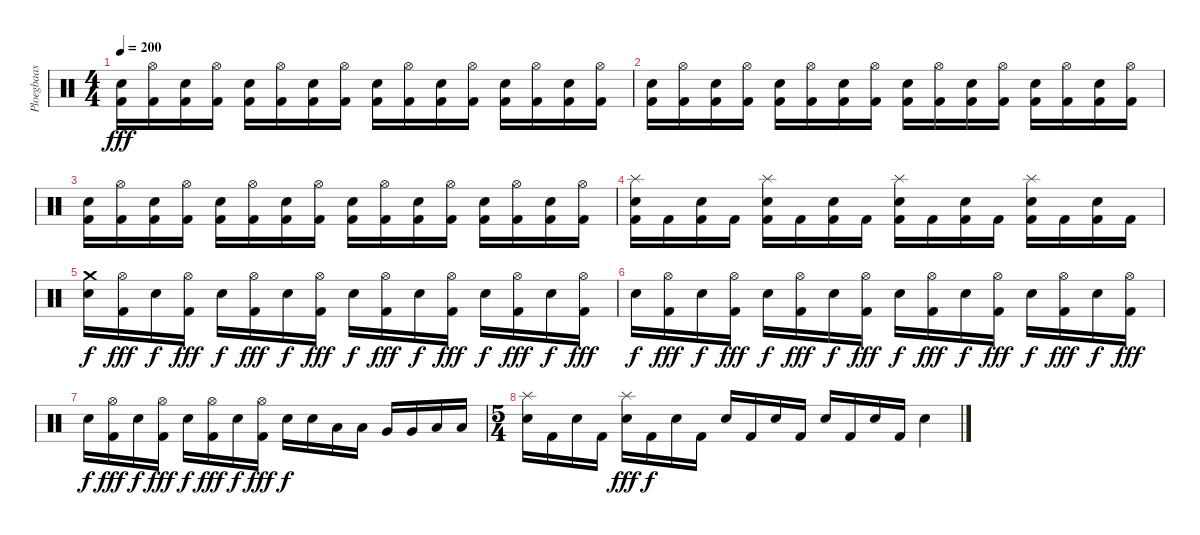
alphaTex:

\track ("Ploegbaas" "Ploegbaas") {instrument percussion}
\staff {score}
\articulation defaults
\ts (4 4)
\tempo 200
\clef neutral
\ks c
("Electric Snare (hit)" "Kick (hit) 2").16{dy fff} ("Hi-Hat (open)" "Kick (hit) 2").16 ("Electric Snare (hit)" "Kick (hit) 2").16 ("Hi-Hat (open)" "Kick (hit) 2").16 ("Electric Snare (hit)" "Kick (hit) 2").16 ("Hi-Hat (open)" "Kick (hit) 2").16 ("Electric Snare (hit)" "Kick (hit) 2").16 ("Hi-Hat (open)" "Kick (hit) 2").16 ("Electric Snare (hit)" "Kick (hit) 2").16 ("Hi-Hat (open)" "Kick (hit) 2").16 ("Electric Snare (hit)" "Kick (hit) 2").16 ("Hi-Hat (open)" "Kick (hit) 2").16 ("Electric Snare (hit)" "Kick (hit) 2").16 ("Hi-Hat (open)" "Kick (hit) 2").16 ("Electric Snare (hit)" "Kick (hit) 2").16 ("Hi-Hat (open)" "Kick (hit) 2").16 |
("Electric Snare (hit)" "Kick (hit) 2").16 ("Hi-Hat (open)" "Kick (hit) 2").16 ("Electric Snare (hit)" "Kick (hit) 2").16 ("Hi-Hat (open)" "Kick (hit) 2").16 ("Electric Snare (hit)" "Kick (hit) 2").16 ("Hi-Hat (open)" "Kick (hit) 2").16 ("Electric Snare (hit)" "Kick (hit) 2").16 ("Hi-Hat (open)" "Kick (hit) 2").16 ("Electric Snare (hit)" "Kick (hit) 2").16 ("Hi-Hat (open)" "Kick (hit) 2").16 ("Electric Snare (hit)" "Kick (hit) 2").16 ("Hi-Hat (open)" "Kick (hit) 2").16 ("Electric Snare (hit)" "Kick (hit) 2").16 ("Hi-Hat (open)" "Kick (hit) 2").16 ("Electric Snare (hit)" "Kick (hit) 2").16 ("Hi-Hat (open)" "Kick (hit) 2").16 |
("Electric Snare (hit)" "Kick (hit) 2").16 ("Hi-Hat (open)" "Kick (hit) 2").16 ("Electric Snare (hit)" "Kick (hit) 2").16 ("Hi-Hat (open)" "Kick (hit) 2").16 ("Electric Snare (hit)" "Kick (hit) 2").16 ("Hi-Hat (open)" "Kick (hit) 2").16 ("Electric Snare (hit)" "Kick (hit) 2").16 ("Hi-Hat (open)" "Kick (hit) 2").16 ("Electric Snare (hit)" "Kick (hit) 2").16 ("Hi-Hat (open)" "Kick (hit) 2").16 ("Electric Snare (hit)" "Kick (hit) 2").16 ("Hi-Hat (open)" "Kick (hit) 2").16 ("Electric Snare (hit)" "Kick (hit) 2").16 ("Hi-Hat (open)" "Kick (hit) 2").16 ("Electric Snare (hit)" "Kick (hit) 2").16 ("Hi-Hat (open)" "Kick (hit) 2").16 |
("Splash (hit)" "Electric Snare (hit)" "Kick (hit) 2").16 "Kick (hit) 2".16 ("Electric Snare (hit)" "Kick (hit) 2").16 "Kick (hit) 2".16 ("Splash (hit)" "Electric Snare (hit)" "Kick (hit) 2").16 "Kick (hit) 2".16 ("Electric Snare (hit)" "Kick (hit) 2").16 "Kick (hit) 2".16 ("Splash (hit)" "Electric Snare (hit)" "Kick (hit) 2").16 "Kick (hit) 2".16 ("Electric Snare (hit)" "Kick (hit) 2").16 "Kick (hit) 2".16 ("Splash (hit)" "Electric Snare (hit)" "Kick (hit) 2").16 "Kick (hit) 2".16 ("Electric Snare (hit)" "Kick (hit) 2").16 "Kick (hit) 2".16 |
("Crash medium (hit)" "Electric Snare (hit)").16{dy f} ("Hi-Hat (open)" "Kick (hit) 2").16{dy fff} "Electric Snare (hit)".16{dy f} ("Hi-Hat (open)" "Kick (hit) 2").16{dy fff} "Electric Snare (hit)".16{dy f} ("Hi-Hat (open)" "Kick (hit) 2").16{dy fff} "Electric Snare (hit)".16{dy f} ("Hi-Hat (open)" "Kick (hit) 2").16{dy fff} "Electric Snare (hit)".16{dy f} ("Hi-Hat (open)" "Kick (hit) 2").16{dy fff} "Electric Snare (hit)".16{dy f} ("Hi-Hat (open)" "Kick (hit) 2").16{dy fff} "Electric Snare (hit)".16{dy f} ("Hi-Hat (open)" "Kick (hit) 2").16{dy fff} "Electric Snare (hit)".16{dy f} ("Hi-Hat (open)" "Kick (hit) 2").16{dy fff} |
"Electric Snare (hit)".16{dy f} ("Hi-Hat (open)" "Kick (hit) 2").16{dy fff} "Electric Snare (hit)".16{dy f} ("Hi-Hat (open)" "Kick (hit) 2").16{dy fff} "Electric Snare (hit)".16{dy f} ("Hi-Hat (open)" "Kick (hit) 2").16{dy fff} "Electric Snare (hit)".16{dy f} ("Hi-Hat (open)" "Kick (hit) 2").16{dy fff} "Electric Snare (hit)".16{dy f} ("Hi-Hat (open)" "Kick (hit) 2").16{dy fff} "Electric Snare (hit)".16{dy f} ("Hi-Hat (open)" "Kick (hit) 2").16{dy fff} "Electric Snare (hit)".16{dy f} ("Hi-Hat (open)" "Kick (hit) 2").16{dy fff} "Electric Snare (hit)".16{dy f} ("Hi-Hat (open)" "Kick (hit) 2").16{dy fff} |
"Electric Snare (hit)".16{dy f} ("Hi-Hat (open)" "Kick (hit) 2").16{dy fff} "Electric Snare (hit)".16{dy f} ("Hi-Hat (open)" "Kick (hit) 2").16{dy fff} "Electric Snare (hit)".16{dy f} ("Hi-Hat (open)" "Kick (hit) 2").16{dy fff} "Electric Snare (hit)".16{dy f} ("Hi-Hat (open)" "Kick (hit) 2").16{dy fff} "Electric Snare (hit)".16{dy f} "Electric Snare (hit)".16 "Low Tom (hit)".16 "Low Tom (hit)".16 "Very Low Tom (hit)".16 "Very Low Tom (hit)".16 "Low Floor Tom (hit)".16 "Low Floor Tom (hit)".16 |
\ts (5 4)
("Splash (hit)" "Electric Snare (hit)").16 "Kick (hit) 2".16 "Electric Snare (hit)".16 "Kick (hit) 2".16 ("Splash (hit)" "Electric Snare (hit)").16{dy fff} "Kick (hit) 2".16{dy f} "Electric Snare (hit)".16 "Kick (hit) 2".16 "Electric Snare (hit)".16 "Kick (hit) 2".16 "Electric Snare (hit)".16 "Kick (hit) 2".16 "Electric Snare (hit)".16 "Kick (hit) 2".16 "Electric Snare (hit)".16 "Kick (hit) 2".16 "Electric Snare (hit)".4
